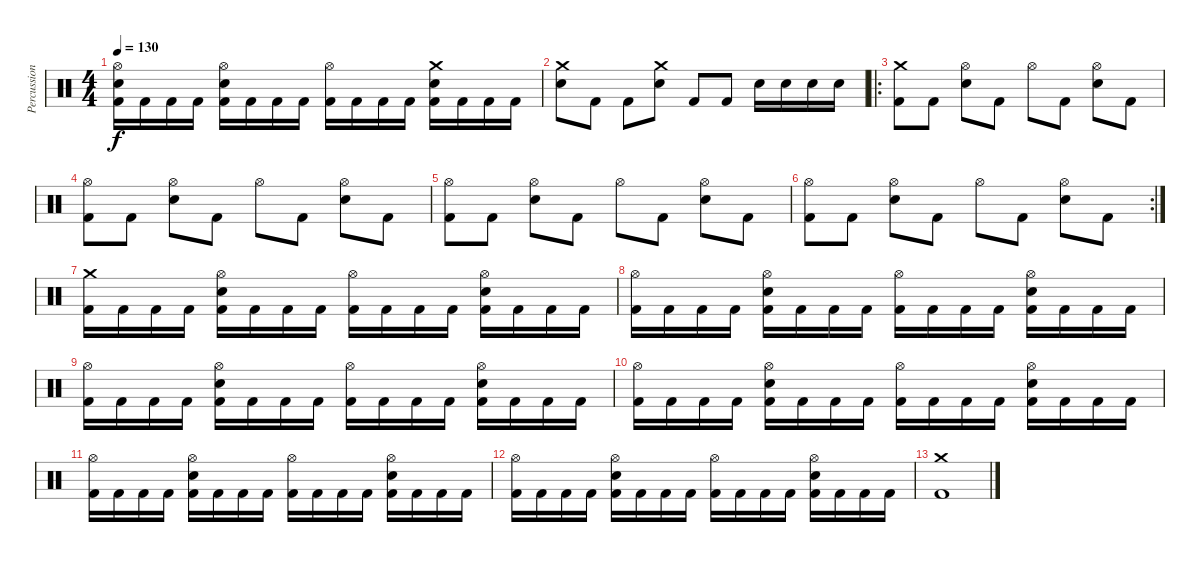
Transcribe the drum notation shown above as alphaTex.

\track ("Percussion" "Percussion") {instrument percussion}
\staff {score}
\articulation defaults
\ts (4 4)
\tempo 130
\clef neutral
\ks c
("Hi-Hat (open)" "Electric Snare (hit)" "Kick (hit) 2").16{dy f} "Kick (hit) 2".16 "Kick (hit) 2".16 "Kick (hit) 2".16 ("Hi-Hat (open)" "Electric Snare (hit)" "Kick (hit) 2").16 "Kick (hit) 2".16 "Kick (hit) 2".16 "Kick (hit) 2".16 ("Hi-Hat (open)" "Kick (hit) 2").16 "Kick (hit) 2".16 "Kick (hit) 2".16 "Kick (hit) 2".16 ("Crash medium (hit)" "Electric Snare (hit)" "Kick (hit) 2").16 "Kick (hit) 2".16 "Kick (hit) 2".16 "Kick (hit) 2".16 |
("Crash medium (hit)" "Electric Snare (hit)").8 "Kick (hit) 2".8 "Kick (hit) 2".8 ("Crash medium (hit)" "Electric Snare (hit)").8 "Kick (hit) 2".8 "Kick (hit) 2".8 "Electric Snare (hit)".16 "Electric Snare (hit)".16 "Electric Snare (hit)".16 "Electric Snare (hit)".16 |
\ro
("Crash medium (hit)" "Kick (hit) 2").8 "Kick (hit) 2".8 ("Hi-Hat (open)" "Electric Snare (hit)").8 "Kick (hit) 2".8 "Hi-Hat (open)".8 "Kick (hit) 2".8 ("Hi-Hat (open)" "Electric Snare (hit)").8 "Kick (hit) 2".8 |
("Hi-Hat (open)" "Kick (hit) 2").8 "Kick (hit) 2".8 ("Hi-Hat (open)" "Electric Snare (hit)").8 "Kick (hit) 2".8 "Hi-Hat (open)".8 "Kick (hit) 2".8 ("Hi-Hat (open)" "Electric Snare (hit)").8 "Kick (hit) 2".8 |
("Hi-Hat (open)" "Kick (hit) 2").8 "Kick (hit) 2".8 ("Hi-Hat (open)" "Electric Snare (hit)").8 "Kick (hit) 2".8 "Hi-Hat (open)".8 "Kick (hit) 2".8 ("Hi-Hat (open)" "Electric Snare (hit)").8 "Kick (hit) 2".8 |
\rc 2
("Hi-Hat (open)" "Kick (hit) 2").8 "Kick (hit) 2".8 ("Hi-Hat (open)" "Electric Snare (hit)").8 "Kick (hit) 2".8 "Hi-Hat (open)".8 "Kick (hit) 2".8 ("Hi-Hat (open)" "Electric Snare (hit)").8 "Kick (hit) 2".8 |
("Crash medium (hit)" "Kick (hit) 2").16 "Kick (hit) 2".16 "Kick (hit) 2".16 "Kick (hit) 2".16 ("Hi-Hat (open)" "Electric Snare (hit)" "Kick (hit) 2").16 "Kick (hit) 2".16 "Kick (hit) 2".16 "Kick (hit) 2".16 ("Hi-Hat (open)" "Kick (hit) 2").16 "Kick (hit) 2".16 "Kick (hit) 2".16 "Kick (hit) 2".16 ("Hi-Hat (open)" "Electric Snare (hit)" "Kick (hit) 2").16 "Kick (hit) 2".16 "Kick (hit) 2".16 "Kick (hit) 2".16 |
("Hi-Hat (open)" "Kick (hit) 2").16 "Kick (hit) 2".16 "Kick (hit) 2".16 "Kick (hit) 2".16 ("Hi-Hat (open)" "Electric Snare (hit)" "Kick (hit) 2").16 "Kick (hit) 2".16 "Kick (hit) 2".16 "Kick (hit) 2".16 ("Hi-Hat (open)" "Kick (hit) 2").16 "Kick (hit) 2".16 "Kick (hit) 2".16 "Kick (hit) 2".16 ("Hi-Hat (open)" "Electric Snare (hit)" "Kick (hit) 2").16 "Kick (hit) 2".16 "Kick (hit) 2".16 "Kick (hit) 2".16 |
("Hi-Hat (open)" "Kick (hit) 2").16 "Kick (hit) 2".16 "Kick (hit) 2".16 "Kick (hit) 2".16 ("Hi-Hat (open)" "Electric Snare (hit)" "Kick (hit) 2").16 "Kick (hit) 2".16 "Kick (hit) 2".16 "Kick (hit) 2".16 ("Hi-Hat (open)" "Kick (hit) 2").16 "Kick (hit) 2".16 "Kick (hit) 2".16 "Kick (hit) 2".16 ("Hi-Hat (open)" "Electric Snare (hit)" "Kick (hit) 2").16 "Kick (hit) 2".16 "Kick (hit) 2".16 "Kick (hit) 2".16 |
("Hi-Hat (open)" "Kick (hit) 2").16 "Kick (hit) 2".16 "Kick (hit) 2".16 "Kick (hit) 2".16 ("Hi-Hat (open)" "Electric Snare (hit)" "Kick (hit) 2").16 "Kick (hit) 2".16 "Kick (hit) 2".16 "Kick (hit) 2".16 ("Hi-Hat (open)" "Kick (hit) 2").16 "Kick (hit) 2".16 "Kick (hit) 2".16 "Kick (hit) 2".16 ("Hi-Hat (open)" "Electric Snare (hit)" "Kick (hit) 2").16 "Kick (hit) 2".16 "Kick (hit) 2".16 "Kick (hit) 2".16 |
("Hi-Hat (open)" "Kick (hit) 2").16 "Kick (hit) 2".16 "Kick (hit) 2".16 "Kick (hit) 2".16 ("Hi-Hat (open)" "Electric Snare (hit)" "Kick (hit) 2").16 "Kick (hit) 2".16 "Kick (hit) 2".16 "Kick (hit) 2".16 ("Hi-Hat (open)" "Kick (hit) 2").16 "Kick (hit) 2".16 "Kick (hit) 2".16 "Kick (hit) 2".16 ("Hi-Hat (open)" "Electric Snare (hit)" "Kick (hit) 2").16 "Kick (hit) 2".16 "Kick (hit) 2".16 "Kick (hit) 2".16 |
("Hi-Hat (open)" "Kick (hit) 2").16 "Kick (hit) 2".16 "Kick (hit) 2".16 "Kick (hit) 2".16 ("Hi-Hat (open)" "Electric Snare (hit)" "Kick (hit) 2").16 "Kick (hit) 2".16 "Kick (hit) 2".16 "Kick (hit) 2".16 ("Hi-Hat (open)" "Kick (hit) 2").16 "Kick (hit) 2".16 "Kick (hit) 2".16 "Kick (hit) 2".16 ("Hi-Hat (open)" "Electric Snare (hit)" "Kick (hit) 2").16 "Kick (hit) 2".16 "Kick (hit) 2".16 "Kick (hit) 2".16 |
("Crash medium (hit)" "Kick (hit) 2").1
